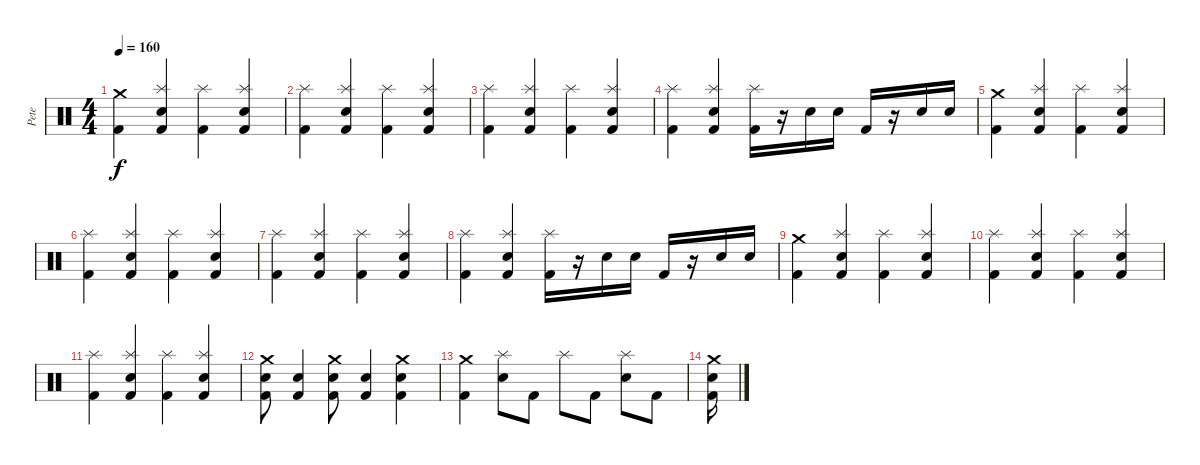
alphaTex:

\track ("Pete" "Pete") {instrument percussion}
\staff {score}
\articulation defaults
\ts (4 4)
\tempo 160
\clef neutral
\ks c
("Crash medium (hit)" "Kick (hit) 2").4{dy f} ("Splash (hit)" "Electric Snare (hit)" "Kick (hit) 2").4 ("Splash (hit)" "Kick (hit) 2").4 ("Splash (hit)" "Electric Snare (hit)" "Kick (hit) 2").4 |
("Splash (hit)" "Kick (hit) 2").4 ("Splash (hit)" "Electric Snare (hit)" "Kick (hit) 2").4 ("Splash (hit)" "Kick (hit) 2").4 ("Splash (hit)" "Electric Snare (hit)" "Kick (hit) 2").4 |
("Splash (hit)" "Kick (hit) 2").4 ("Splash (hit)" "Electric Snare (hit)" "Kick (hit) 2").4 ("Splash (hit)" "Kick (hit) 2").4 ("Splash (hit)" "Electric Snare (hit)" "Kick (hit) 2").4 |
("Splash (hit)" "Kick (hit) 2").4 ("Splash (hit)" "Electric Snare (hit)" "Kick (hit) 2").4 ("Splash (hit)" "Kick (hit) 2").16 r.16 "Electric Snare (hit)".16 "Electric Snare (hit)".16 "Kick (hit) 2".16 r.16 "Electric Snare (hit)".16 "Electric Snare (hit)".16 |
("Crash medium (hit)" "Kick (hit) 2").4 ("Splash (hit)" "Electric Snare (hit)" "Kick (hit) 2").4 ("Splash (hit)" "Kick (hit) 2").4 ("Splash (hit)" "Electric Snare (hit)" "Kick (hit) 2").4 |
("Splash (hit)" "Kick (hit) 2").4 ("Splash (hit)" "Electric Snare (hit)" "Kick (hit) 2").4 ("Splash (hit)" "Kick (hit) 2").4 ("Splash (hit)" "Electric Snare (hit)" "Kick (hit) 2").4 |
("Splash (hit)" "Kick (hit) 2").4 ("Splash (hit)" "Electric Snare (hit)" "Kick (hit) 2").4 ("Splash (hit)" "Kick (hit) 2").4 ("Splash (hit)" "Electric Snare (hit)" "Kick (hit) 2").4 |
("Splash (hit)" "Kick (hit) 2").4 ("Splash (hit)" "Electric Snare (hit)" "Kick (hit) 2").4 ("Splash (hit)" "Kick (hit) 2").16 r.16 "Electric Snare (hit)".16 "Electric Snare (hit)".16 "Kick (hit) 2".16 r.16 "Electric Snare (hit)".16 "Electric Snare (hit)".16 |
("Crash medium (hit)" "Kick (hit) 2").4 ("Splash (hit)" "Electric Snare (hit)" "Kick (hit) 2").4 ("Splash (hit)" "Kick (hit) 2").4 ("Splash (hit)" "Electric Snare (hit)" "Kick (hit) 2").4 |
("Splash (hit)" "Kick (hit) 2").4 ("Splash (hit)" "Electric Snare (hit)" "Kick (hit) 2").4 ("Splash (hit)" "Kick (hit) 2").4 ("Splash (hit)" "Electric Snare (hit)" "Kick (hit) 2").4 |
("Splash (hit)" "Kick (hit) 2").4 ("Splash (hit)" "Electric Snare (hit)" "Kick (hit) 2").4 ("Splash (hit)" "Kick (hit) 2").4 ("Splash (hit)" "Electric Snare (hit)" "Kick (hit) 2").4 |
("Crash medium (hit)" "Electric Snare (hit)" "Kick (hit) 2").8 ("Electric Snare (hit)" "Kick (hit) 2").4 ("Crash medium (hit)" "Electric Snare (hit)" "Kick (hit) 2").8 ("Electric Snare (hit)" "Kick (hit) 2").4 ("Crash medium (hit)" "Electric Snare (hit)" "Kick (hit) 2").4 |
("Crash medium (hit)" "Kick (hit) 2").4 ("Splash (hit)" "Electric Snare (hit)").8 "Kick (hit) 2".8 "Splash (hit)".8 "Kick (hit) 2".8 ("Splash (hit)" "Electric Snare (hit)").8 "Kick (hit) 2".8 |
("Crash medium (hit)" "Electric Snare (hit)" "Kick (hit) 2").16
